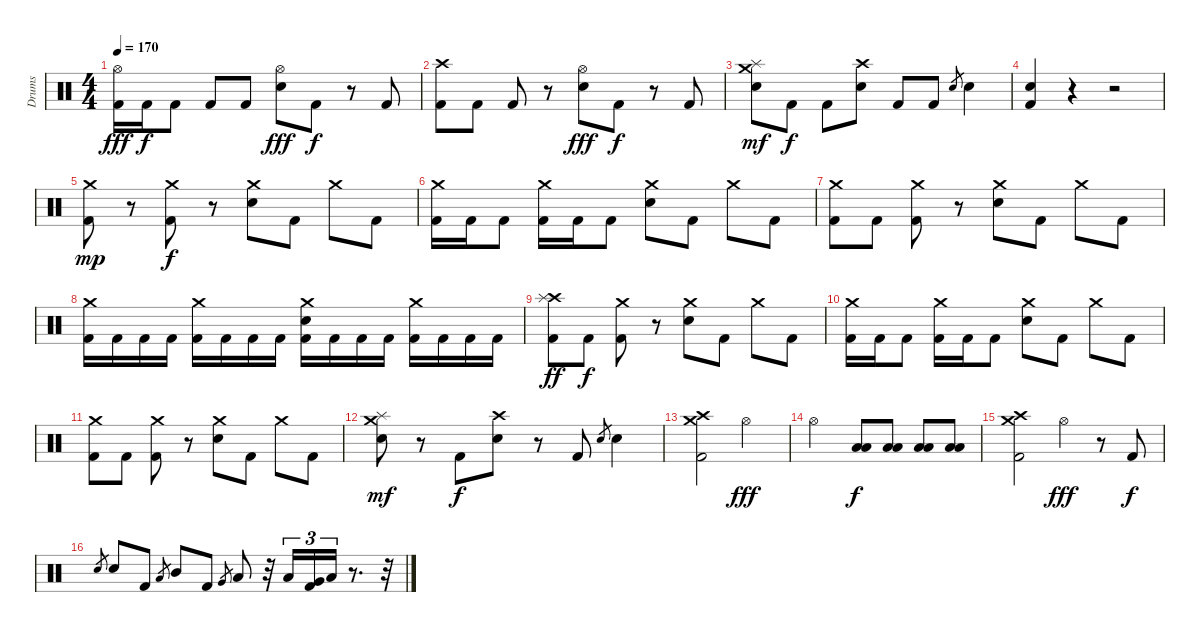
\track ("Drums" "Drums") {instrument percussion}
\staff {score}
\articulation defaults
\ts (4 4)
\tempo 170
\clef neutral
\ks c
("Hi-Hat (open)" "Kick (hit) 2").16{dy fff} "Kick (hit) 2".16{dy f} "Kick (hit) 2".8 "Kick (hit) 2".8 "Kick (hit) 2".8 ("Hi-Hat (open)" "Electric Snare (hit)").8{dy fff} "Kick (hit) 2".8{dy f} r.8 "Kick (hit) 2".8 |
("Crash high (hit)" "Kick (hit) 2").8 "Kick (hit) 2".8 "Kick (hit) 2".8 r.8 ("Hi-Hat (open)" "Electric Snare (hit)").8{dy fff} "Kick (hit) 2".8{dy f} r.8 "Kick (hit) 2".8 |
("Crash medium (hit)" "Splash (hit)" "Electric Snare (hit)").8{dy mf} "Kick (hit) 2".8{dy f} "Kick (hit) 2".8 ("Crash high (hit)" "Electric Snare (hit)").8 "Kick (hit) 2".8 "Kick (hit) 2".8 "Electric Snare (hit)".8{gr} "Electric Snare (hit)".4 |
("Electric Snare (hit)" "Kick (hit) 2").4 r.4 r.2 |
("Crash medium (hit)" "Kick (hit) 2").8{dy mp} r.8 ("Crash medium (hit)" "Kick (hit) 2").8{dy f} r.8 ("Crash medium (hit)" "Electric Snare (hit)").8 "Kick (hit) 2".8 "Crash medium (hit)".8 "Kick (hit) 2".8 |
("Crash medium (hit)" "Kick (hit) 2").16 "Kick (hit) 2".16 "Kick (hit) 2".8 ("Crash medium (hit)" "Kick (hit) 2").16 "Kick (hit) 2".16 "Kick (hit) 2".8 ("Crash medium (hit)" "Electric Snare (hit)").8 "Kick (hit) 2".8 "Crash medium (hit)".8 "Kick (hit) 2".8 |
("Crash medium (hit)" "Kick (hit) 2").8 "Kick (hit) 2".8 ("Crash medium (hit)" "Kick (hit) 2").8 r.8 ("Crash medium (hit)" "Electric Snare (hit)").8 "Kick (hit) 2".8 "Crash medium (hit)".8 "Kick (hit) 2".8 |
("Crash medium (hit)" "Kick (hit) 2").16 "Kick (hit) 2".16 "Kick (hit) 2".16 "Kick (hit) 2".16 ("Crash medium (hit)" "Kick (hit) 2").16 "Kick (hit) 2".16 "Kick (hit) 2".16 "Kick (hit) 2".16 ("Crash medium (hit)" "Electric Snare (hit)" "Kick (hit) 2").16 "Kick (hit) 2".16 "Kick (hit) 2".16 "Kick (hit) 2".16 ("Crash medium (hit)" "Kick (hit) 2").16 "Kick (hit) 2".16 "Kick (hit) 2".16 "Kick (hit) 2".16 |
("Crash high (hit)" "Splash (hit)" "Kick (hit) 2").8{dy ff} "Kick (hit) 2".8{dy f} ("Crash medium (hit)" "Kick (hit) 2").8 r.8 ("Crash medium (hit)" "Electric Snare (hit)").8 "Kick (hit) 2".8 "Crash medium (hit)".8 "Kick (hit) 2".8 |
("Crash medium (hit)" "Kick (hit) 2").16 "Kick (hit) 2".16 "Kick (hit) 2".8 ("Crash medium (hit)" "Kick (hit) 2").16 "Kick (hit) 2".16 "Kick (hit) 2".8 ("Crash medium (hit)" "Electric Snare (hit)").8 "Kick (hit) 2".8 "Crash medium (hit)".8 "Kick (hit) 2".8 |
("Crash medium (hit)" "Kick (hit) 2").8 "Kick (hit) 2".8 ("Crash medium (hit)" "Kick (hit) 2").8 r.8 ("Crash medium (hit)" "Electric Snare (hit)").8 "Kick (hit) 2".8 "Crash medium (hit)".8 "Kick (hit) 2".8 |
("Crash medium (hit)" "Splash (hit)" "Electric Snare (hit)").8{dy mf} r.8 "Kick (hit) 2".8{dy f} ("Crash high (hit)" "Electric Snare (hit)").8 r.8 "Kick (hit) 2".8 "Electric Snare (hit)".8{gr} "Electric Snare (hit)".4 |
("Crash medium (hit)" "Crash high (hit)" "Kick (hit) 2").2 "Hi-Hat (open)".2{dy fff} |
"Hi-Hat (open)".2 ("Low Floor Tom (hit)" "Low Tom (hit)").8{dy f} ("Low Floor Tom (hit)" "Low Tom (hit)").8 ("Low Floor Tom (hit)" "Low Tom (hit)").8 ("Low Floor Tom (hit)" "Low Tom (hit)").8 |
("Crash medium (hit)" "Crash high (hit)" "Kick (hit) 2").2 "Hi-Hat (open)".4{dy fff} r.8 "Kick (hit) 2".8{dy f} |
"Electric Snare (hit)".8{gr} "Electric Snare (hit)".8 "Kick (hit) 2".8 "Low Tom (hit)".8{gr} "Mid Tom (hit)".8 "Kick (hit) 2".8 "Very Low Tom (hit)".8{gr} "Low Tom (hit)".8 r.32 "Low Tom (hit)".16{tu (3 2)} ("Very Low Tom (hit)" "Kick (hit) 2").16{tu (3 2)} "Low Floor Tom (hit)".16{tu (3 2)} r.8{d} r.32
